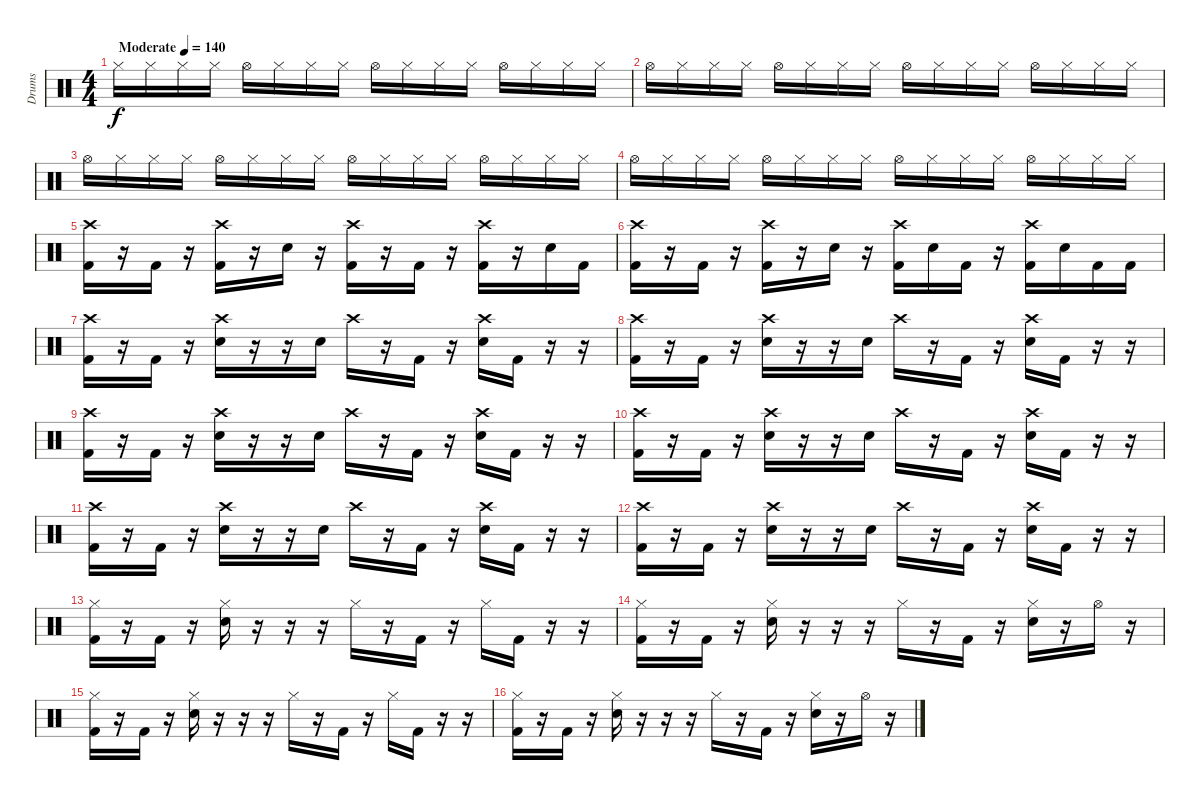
\track ("Drums" "Drums") {instrument percussion}
\staff {score}
\articulation defaults
\ts (4 4)
\tempo (140 "Moderate")
\clef neutral
\ks c "Hi-Hat (closed)".16{dy f} "Hi-Hat (closed)".16 "Hi-Hat (closed)".16 "Hi-Hat (closed)".16 "Hi-Hat (open)".16 "Hi-Hat (closed)".16 "Hi-Hat (closed)".16 "Hi-Hat (closed)".16 "Hi-Hat (open)".16 "Hi-Hat (closed)".16 "Hi-Hat (closed)".16 "Hi-Hat (closed)".16 "Hi-Hat (open)".16 "Hi-Hat (closed)".16 "Hi-Hat (closed)".16 "Hi-Hat (closed)".16
|
"Hi-Hat (open)".16 "Hi-Hat (closed)".16 "Hi-Hat (closed)".16 "Hi-Hat (closed)".16 "Hi-Hat (open)".16 "Hi-Hat (closed)".16 "Hi-Hat (closed)".16 "Hi-Hat (closed)".16 "Hi-Hat (open)".16 "Hi-Hat (closed)".16 "Hi-Hat (closed)".16 "Hi-Hat (closed)".16 "Hi-Hat (open)".16 "Hi-Hat (closed)".16 "Hi-Hat (closed)".16 "Hi-Hat (closed)".16 |
"Hi-Hat (open)".16 "Hi-Hat (closed)".16 "Hi-Hat (closed)".16 "Hi-Hat (closed)".16 "Hi-Hat (open)".16 "Hi-Hat (closed)".16 "Hi-Hat (closed)".16 "Hi-Hat (closed)".16 "Hi-Hat (open)".16 "Hi-Hat (closed)".16 "Hi-Hat (closed)".16 "Hi-Hat (closed)".16 "Hi-Hat (open)".16 "Hi-Hat (closed)".16 "Hi-Hat (closed)".16 "Hi-Hat (closed)".16 |
"Hi-Hat (open)".16 "Hi-Hat (closed)".16 "Hi-Hat (closed)".16 "Hi-Hat (closed)".16 "Hi-Hat (open)".16 "Hi-Hat (closed)".16 "Hi-Hat (closed)".16 "Hi-Hat (closed)".16 "Hi-Hat (open)".16 "Hi-Hat (closed)".16 "Hi-Hat (closed)".16 "Hi-Hat (closed)".16 "Hi-Hat (open)".16 "Hi-Hat (closed)".16 "Hi-Hat (closed)".16 "Hi-Hat (closed)".16 |
("Crash high (hit)" "Kick (hit) 2").16 r.16 "Kick (hit) 2".16 r.16 ("Crash high (hit)" "Kick (hit) 2").16 r.16 "Electric Snare (hit)".16 r.16 ("Crash high (hit)" "Kick (hit) 2").16 r.16 "Kick (hit) 2".16 r.16 ("Crash high (hit)" "Kick (hit) 2").16 r.16 "Electric Snare (hit)".16 "Kick (hit) 2".16 |
("Crash high (hit)" "Kick (hit) 2").16 r.16 "Kick (hit) 2".16 r.16 ("Crash high (hit)" "Kick (hit) 2").16 r.16 "Electric Snare (hit)".16 r.16 ("Crash high (hit)" "Kick (hit) 2").16 "Electric Snare (hit)".16 "Kick (hit) 2".16 r.16 ("Crash high (hit)" "Kick (hit) 2").16 "Electric Snare (hit)".16 "Kick (hit) 2".16 "Kick (hit) 2".16 |
("Crash high (hit)" "Kick (hit) 2").16 r.16 "Kick (hit) 2".16 r.16 ("Crash high (hit)" "Electric Snare (hit)").16 r.16 r.16 "Electric Snare (hit)".16 "Crash high (hit)".16 r.16 "Kick (hit) 2".16 r.16 ("Crash high (hit)" "Electric Snare (hit)").16 "Kick (hit) 2".16 r.16 r.16 |
("Crash high (hit)" "Kick (hit) 2").16 r.16 "Kick (hit) 2".16 r.16 ("Crash high (hit)" "Electric Snare (hit)").16 r.16 r.16 "Electric Snare (hit)".16 "Crash high (hit)".16 r.16 "Kick (hit) 2".16 r.16 ("Crash high (hit)" "Electric Snare (hit)").16 "Kick (hit) 2".16 r.16 r.16 |
("Crash high (hit)" "Kick (hit) 2").16 r.16 "Kick (hit) 2".16 r.16 ("Crash high (hit)" "Electric Snare (hit)").16 r.16 r.16 "Electric Snare (hit)".16 "Crash high (hit)".16 r.16 "Kick (hit) 2".16 r.16 ("Crash high (hit)" "Electric Snare (hit)").16 "Kick (hit) 2".16 r.16 r.16 |
("Crash high (hit)" "Kick (hit) 2").16 r.16 "Kick (hit) 2".16 r.16 ("Crash high (hit)" "Electric Snare (hit)").16 r.16 r.16 "Electric Snare (hit)".16 "Crash high (hit)".16 r.16 "Kick (hit) 2".16 r.16 ("Crash high (hit)" "Electric Snare (hit)").16 "Kick (hit) 2".16 r.16 r.16 |
("Crash high (hit)" "Kick (hit) 2").16 r.16 "Kick (hit) 2".16 r.16 ("Crash high (hit)" "Electric Snare (hit)").16 r.16 r.16 "Electric Snare (hit)".16 "Crash high (hit)".16 r.16 "Kick (hit) 2".16 r.16 ("Crash high (hit)" "Electric Snare (hit)").16 "Kick (hit) 2".16 r.16 r.16 |
("Crash high (hit)" "Kick (hit) 2").16 r.16 "Kick (hit) 2".16 r.16 ("Crash high (hit)" "Electric Snare (hit)").16 r.16 r.16 "Electric Snare (hit)".16 "Crash high (hit)".16 r.16 "Kick (hit) 2".16 r.16 ("Crash high (hit)" "Electric Snare (hit)").16 "Kick (hit) 2".16 r.16 r.16 |
("Hi-Hat (closed)" "Kick (hit) 2").16 r.16 "Kick (hit) 2".16 r.16 ("Hi-Hat (closed)" "Electric Snare (hit)").16 r.16 r.16 r.16 "Hi-Hat (closed)".16 r.16 "Kick (hit) 2".16 r.16 "Hi-Hat (closed)".16 "Kick (hit) 2".16 r.16 r.16 |
("Hi-Hat (closed)" "Kick (hit) 2").16 r.16 "Kick (hit) 2".16 r.16 ("Hi-Hat (closed)" "Electric Snare (hit)").16 r.16 r.16 r.16 "Hi-Hat (closed)".16 r.16 "Kick (hit) 2".16 r.16 ("Hi-Hat (closed)" "Electric Snare (hit)").16 r.16 "Hi-Hat (open)".16 r.16 |
("Hi-Hat (closed)" "Kick (hit) 2").16 r.16 "Kick (hit) 2".16 r.16 ("Hi-Hat (closed)" "Electric Snare (hit)").16 r.16 r.16 r.16 "Hi-Hat (closed)".16 r.16 "Kick (hit) 2".16 r.16 "Hi-Hat (closed)".16 "Kick (hit) 2".16 r.16 r.16 |
("Hi-Hat (closed)" "Kick (hit) 2").16 r.16 "Kick (hit) 2".16 r.16 ("Hi-Hat (closed)" "Electric Snare (hit)").16 r.16 r.16 r.16 "Hi-Hat (closed)".16 r.16 "Kick (hit) 2".16 r.16 ("Hi-Hat (closed)" "Electric Snare (hit)").16 r.16 "Hi-Hat (open)".16 r.16
